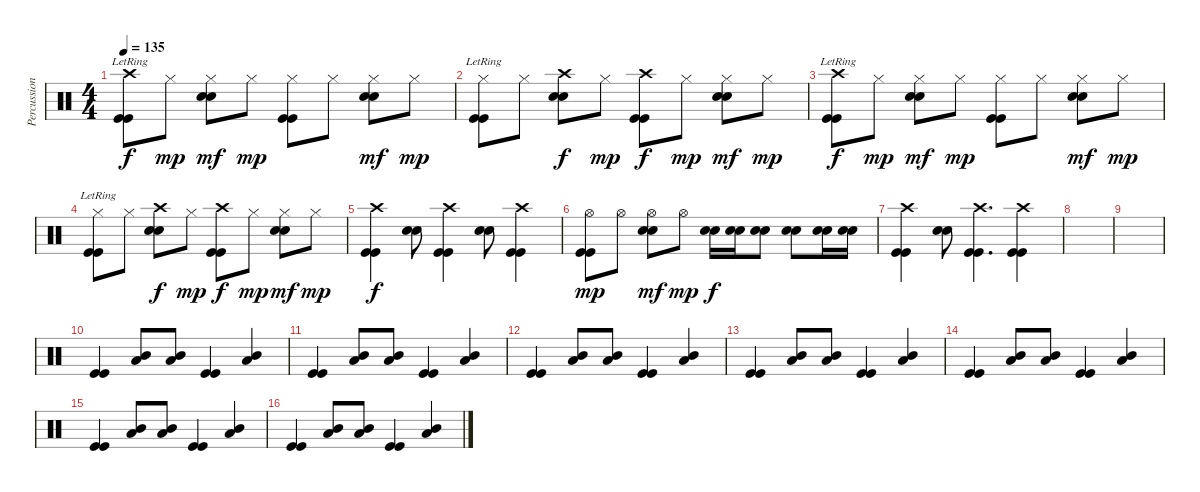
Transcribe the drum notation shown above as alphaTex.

\track ("Percussions" "Percussion") {instrument percussion}
\staff {score}
\articulation defaults
\ts (4 4)
\tempo 135
\clef neutral
\ks c
("Crash high (hit)"{lr} "Kick (hit)" "Kick (hit)").8{dy f} "Hi-Hat (closed)".8{dy mp} ("Hi-Hat (closed)" "Snare (hit) 2" "Snare (hit) 2").8{dy mf} "Hi-Hat (closed)".8{dy mp} ("Hi-Hat (closed)" "Kick (hit)" "Kick (hit)").8 "Hi-Hat (closed)".8 ("Hi-Hat (closed)" "Snare (hit) 2" "Snare (hit) 2").8{dy mf} "Hi-Hat (closed)".8{dy mp} |
("Hi-Hat (closed)"{lr} "Kick (hit)" "Kick (hit)").8 "Hi-Hat (closed)".8 ("Crash high (hit)" "Snare (hit) 2" "Snare (hit) 2").8{dy f} "Hi-Hat (closed)".8{dy mp} ("Crash high (hit)" "Kick (hit)" "Kick (hit)").8{dy f} "Hi-Hat (closed)".8{dy mp} ("Hi-Hat (closed)" "Snare (hit) 2" "Snare (hit) 2").8{dy mf} "Hi-Hat (closed)".8{dy mp} |
("Crash high (hit)"{lr} "Kick (hit)" "Kick (hit)").8{dy f} "Hi-Hat (closed)".8{dy mp} ("Hi-Hat (closed)" "Snare (hit) 2" "Snare (hit) 2").8{dy mf} "Hi-Hat (closed)".8{dy mp} ("Hi-Hat (closed)" "Kick (hit)" "Kick (hit)").8 "Hi-Hat (closed)".8 ("Hi-Hat (closed)" "Snare (hit) 2" "Snare (hit) 2").8{dy mf} "Hi-Hat (closed)".8{dy mp} |
("Hi-Hat (closed)"{lr} "Kick (hit)" "Kick (hit)").8 "Hi-Hat (closed)".8 ("Crash high (hit)" "Snare (hit) 2" "Snare (hit) 2").8{dy f} "Hi-Hat (closed)".8{dy mp} ("Crash high (hit)" "Kick (hit)" "Kick (hit)").8{dy f} "Hi-Hat (closed)".8{dy mp} ("Hi-Hat (closed)" "Snare (hit) 2" "Snare (hit) 2").8{dy mf} "Hi-Hat (closed)".8{dy mp} |
("Crash high (hit)" "Kick (hit)" "Kick (hit)").4{dy f} ("Snare (hit) 2" "Snare (hit) 2").8 ("Crash high (hit)" "Kick (hit)" "Kick (hit)").4 ("Snare (hit) 2" "Snare (hit) 2").8 ("Crash high (hit)" "Kick (hit)" "Kick (hit)").4 |
("Hi-Hat (open)" "Kick (hit)" "Kick (hit)").8{dy mp} "Hi-Hat (open)".8 ("Hi-Hat (open)" "Snare (hit) 2" "Snare (hit) 2").8{dy mf} "Hi-Hat (open)".8{dy mp} ("Snare (hit) 2" "Snare (hit) 2").16{dy f} ("Snare (hit) 2" "Snare (hit) 2").16 ("Snare (hit) 2" "Snare (hit) 2").8 ("Snare (hit) 2" "Snare (hit) 2").8 ("Snare (hit) 2" "Snare (hit) 2").16 ("Snare (hit) 2" "Snare (hit) 2").16 |
("Crash high (hit)" "Kick (hit)" "Kick (hit)").4 ("Snare (hit) 2" "Snare (hit) 2").8 ("Crash high (hit)" "Kick (hit)" "Kick (hit)").4{d} ("Crash high (hit)" "Kick (hit)" "Kick (hit)").4 |
|
|
("Kick (hit)" "Kick (hit)").4 ("Low Tom (hit)" "Mid Tom (hit)").8 ("Low Tom (hit)" "Mid Tom (hit)").8 ("Kick (hit)" "Kick (hit)").4 ("Low Tom (hit)" "Mid Tom (hit)").4 |
("Kick (hit)" "Kick (hit)").4 ("Low Tom (hit)" "Mid Tom (hit)").8 ("Low Tom (hit)" "Mid Tom (hit)").8 ("Kick (hit)" "Kick (hit)").4 ("Low Tom (hit)" "Mid Tom (hit)").4 |
("Kick (hit)" "Kick (hit)").4 ("Low Tom (hit)" "Mid Tom (hit)").8 ("Low Tom (hit)" "Mid Tom (hit)").8 ("Kick (hit)" "Kick (hit)").4 ("Low Tom (hit)" "Mid Tom (hit)").4 |
("Kick (hit)" "Kick (hit)").4 ("Low Tom (hit)" "Mid Tom (hit)").8 ("Low Tom (hit)" "Mid Tom (hit)").8 ("Kick (hit)" "Kick (hit)").4 ("Low Tom (hit)" "Mid Tom (hit)").4 |
("Kick (hit)" "Kick (hit)").4 ("Low Tom (hit)" "Mid Tom (hit)").8 ("Low Tom (hit)" "Mid Tom (hit)").8 ("Kick (hit)" "Kick (hit)").4 ("Low Tom (hit)" "Mid Tom (hit)").4 |
("Kick (hit)" "Kick (hit)").4 ("Low Tom (hit)" "Mid Tom (hit)").8 ("Low Tom (hit)" "Mid Tom (hit)").8 ("Kick (hit)" "Kick (hit)").4 ("Low Tom (hit)" "Mid Tom (hit)").4 |
("Kick (hit)" "Kick (hit)").4 ("Low Tom (hit)" "Mid Tom (hit)").8 ("Low Tom (hit)" "Mid Tom (hit)").8 ("Kick (hit)" "Kick (hit)").4 ("Low Tom (hit)" "Mid Tom (hit)").4
